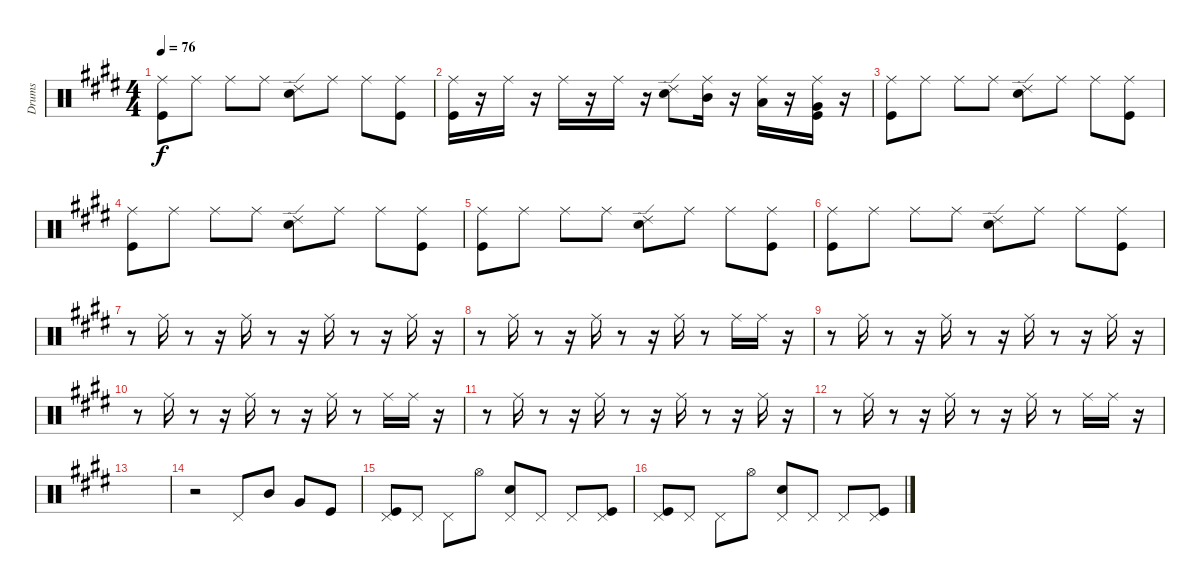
\track ("Drums" "Drums") {instrument percussion}
\staff {score}
\articulation defaults
\ts (4 4)
\tempo 76
\clef neutral
\ks c#minor
("Ride (middle)" "Kick (hit)").8{dy f} "Ride (middle)".8 "Ride (middle)".8 "Ride (middle)".8 ("Snare (hit) 2" "Ride (edge) 2").8 "Ride (middle)".8 "Ride (middle)".8 ("Kick (hit)" "Ride (middle)").8 |
("Ride (middle)" "Kick (hit)").16 r.16 "Ride (middle)".16 r.16 "Ride (middle)".16 r.16 "Ride (middle)".16 r.16 ("Snare (hit) 2" "Ride (edge) 2").8 ("Mid Tom (hit)" "Ride (middle)").16 r.16 ("Low Tom (hit)" "Ride (middle)").16 r.16 ("Kick (hit)" "Ride (middle)" "Very Low Tom (hit)").16 r.16 |
("Ride (middle)" "Kick (hit)").8 "Ride (middle)".8 "Ride (middle)".8 "Ride (middle)".8 ("Snare (hit) 2" "Ride (edge) 2").8 "Ride (middle)".8 "Ride (middle)".8 ("Kick (hit)" "Ride (middle)").8 |
("Ride (middle)" "Kick (hit)").8 "Ride (middle)".8 "Ride (middle)".8 "Ride (middle)".8 ("Snare (hit) 2" "Ride (edge) 2").8 "Ride (middle)".8 "Ride (middle)".8 ("Kick (hit)" "Ride (middle)").8 |
("Ride (middle)" "Kick (hit)").8 "Ride (middle)".8 "Ride (middle)".8 "Ride (middle)".8 ("Snare (hit) 2" "Ride (edge) 2").8 "Ride (middle)".8 "Ride (middle)".8 ("Kick (hit)" "Ride (middle)").8 |
("Ride (middle)" "Kick (hit)").8 "Ride (middle)".8 "Ride (middle)".8 "Ride (middle)".8 ("Snare (hit) 2" "Ride (edge) 2").8 "Ride (middle)".8 "Ride (middle)".8 ("Kick (hit)" "Ride (middle)").8 |
r.8{volume 8} "Ride (middle)".16 r.8 r.16 "Ride (middle)".16 r.8 r.16 "Ride (middle)".16 r.8 r.16 "Ride (middle)".16 r.16 |
r.8 "Ride (middle)".16 r.8 r.16 "Ride (middle)".16 r.8 r.16 "Ride (middle)".16 r.8 "Ride (middle)".16 "Ride (middle)".16 r.16 |
r.8 "Ride (middle)".16 r.8 r.16 "Ride (middle)".16 r.8 r.16 "Ride (middle)".16 r.8 r.16 "Ride (middle)".16 r.16 |
r.8 "Ride (middle)".16 r.8 r.16 "Ride (middle)".16 r.8 r.16 "Ride (middle)".16 r.8 "Ride (middle)".16 "Ride (middle)".16 r.16 |
r.8 "Ride (middle)".16 r.8 r.16 "Ride (middle)".16 r.8 r.16 "Ride (middle)".16 r.8 r.16 "Ride (middle)".16 r.16 |
r.8 "Ride (middle)".16 r.8 r.16 "Ride (middle)".16 r.8 r.16 "Ride (middle)".16 r.8 "Ride (middle)".16 "Ride (middle)".16 r.16 |
|
r.2{volume 15} "Pedal Hi-Hat (hit)".8 "Mid Tom (hit)".8 "Very Low Tom (hit)".8 "Kick (hit)".8 |
("Pedal Hi-Hat (hit)" "Kick (hit)").8 "Pedal Hi-Hat (hit)".8 "Pedal Hi-Hat (hit)".8 "Hi-Hat (open)".8 ("Snare (hit) 2" "Pedal Hi-Hat (hit)").8 "Pedal Hi-Hat (hit)".8 "Pedal Hi-Hat (hit)".8 ("Kick (hit)" "Pedal Hi-Hat (hit)").8 |
("Pedal Hi-Hat (hit)" "Kick (hit)").8 "Pedal Hi-Hat (hit)".8 "Pedal Hi-Hat (hit)".8 "Hi-Hat (open)".8 ("Snare (hit) 2" "Pedal Hi-Hat (hit)").8 "Pedal Hi-Hat (hit)".8 "Pedal Hi-Hat (hit)".8 ("Kick (hit)" "Pedal Hi-Hat (hit)").8
